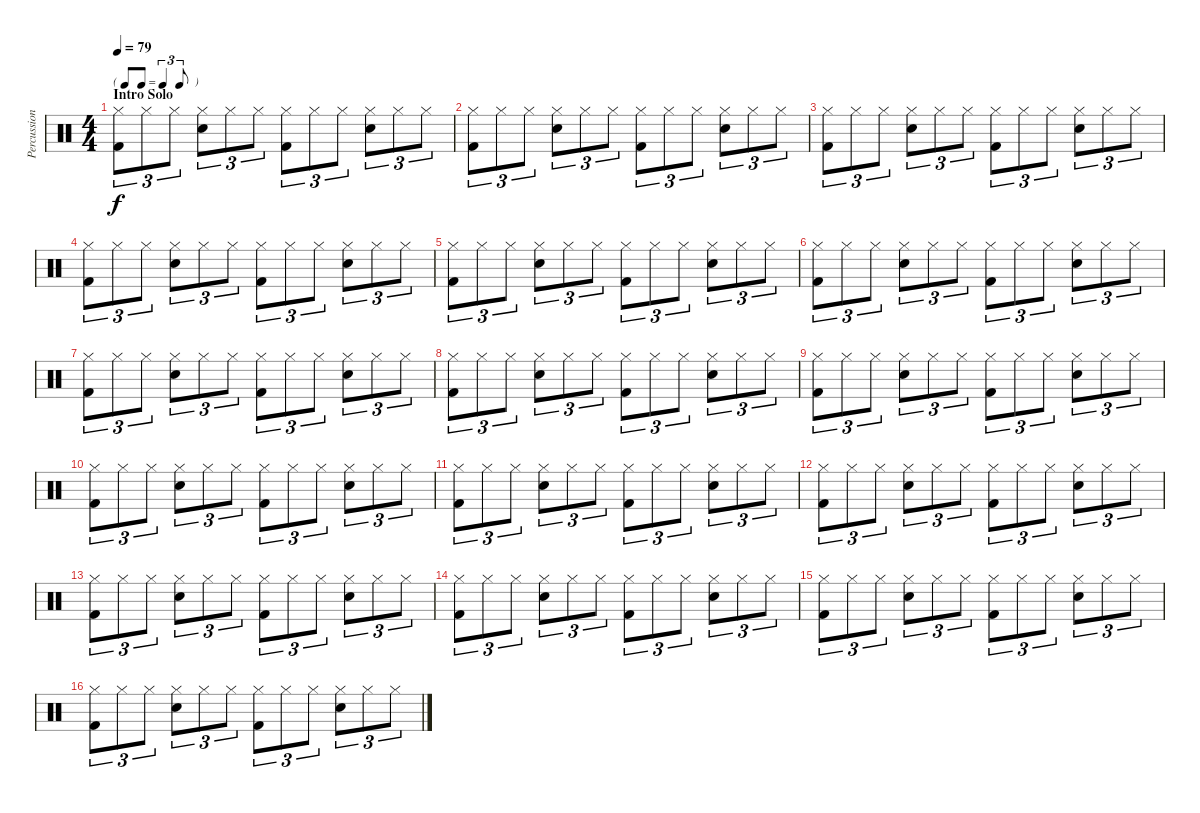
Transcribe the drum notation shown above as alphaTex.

\track ("Percussion" "Percussion") {instrument percussion}
\staff {score}
\articulation defaults
\ts (4 4)
\tf triplet8th
\section ("" "Intro Solo")
\tempo 79
\clef neutral
\ks c
("Hi-Hat (closed)" "Kick (hit) 2").8{tu (3 2) dy f} "Hi-Hat (closed)".8{tu (3 2)} "Hi-Hat (closed)".8{tu (3 2)} ("Hi-Hat (closed)" "Snare (hit) 2").8{tu (3 2)} "Hi-Hat (closed)".8{tu (3 2)} "Hi-Hat (closed)".8{tu (3 2)} ("Hi-Hat (closed)" "Kick (hit) 2").8{tu (3 2)} "Hi-Hat (closed)".8{tu (3 2)} "Hi-Hat (closed)".8{tu (3 2)} ("Hi-Hat (closed)" "Snare (hit) 2").8{tu (3 2)} "Hi-Hat (closed)".8{tu (3 2)} "Hi-Hat (closed)".8{tu (3 2)} |
("Hi-Hat (closed)" "Kick (hit) 2").8{tu (3 2)} "Hi-Hat (closed)".8{tu (3 2)} "Hi-Hat (closed)".8{tu (3 2)} ("Hi-Hat (closed)" "Snare (hit) 2").8{tu (3 2)} "Hi-Hat (closed)".8{tu (3 2)} "Hi-Hat (closed)".8{tu (3 2)} ("Hi-Hat (closed)" "Kick (hit) 2").8{tu (3 2)} "Hi-Hat (closed)".8{tu (3 2)} "Hi-Hat (closed)".8{tu (3 2)} ("Hi-Hat (closed)" "Snare (hit) 2").8{tu (3 2)} "Hi-Hat (closed)".8{tu (3 2)} "Hi-Hat (closed)".8{tu (3 2)} |
("Hi-Hat (closed)" "Kick (hit) 2").8{tu (3 2)} "Hi-Hat (closed)".8{tu (3 2)} "Hi-Hat (closed)".8{tu (3 2)} ("Hi-Hat (closed)" "Snare (hit) 2").8{tu (3 2)} "Hi-Hat (closed)".8{tu (3 2)} "Hi-Hat (closed)".8{tu (3 2)} ("Hi-Hat (closed)" "Kick (hit) 2").8{tu (3 2)} "Hi-Hat (closed)".8{tu (3 2)} "Hi-Hat (closed)".8{tu (3 2)} ("Hi-Hat (closed)" "Snare (hit) 2").8{tu (3 2)} "Hi-Hat (closed)".8{tu (3 2)} "Hi-Hat (closed)".8{tu (3 2)} |
("Hi-Hat (closed)" "Kick (hit) 2").8{tu (3 2)} "Hi-Hat (closed)".8{tu (3 2)} "Hi-Hat (closed)".8{tu (3 2)} ("Hi-Hat (closed)" "Snare (hit) 2").8{tu (3 2)} "Hi-Hat (closed)".8{tu (3 2)} "Hi-Hat (closed)".8{tu (3 2)} ("Hi-Hat (closed)" "Kick (hit) 2").8{tu (3 2)} "Hi-Hat (closed)".8{tu (3 2)} "Hi-Hat (closed)".8{tu (3 2)} ("Hi-Hat (closed)" "Snare (hit) 2").8{tu (3 2)} "Hi-Hat (closed)".8{tu (3 2)} "Hi-Hat (closed)".8{tu (3 2)} |
("Hi-Hat (closed)" "Kick (hit) 2").8{tu (3 2)} "Hi-Hat (closed)".8{tu (3 2)} "Hi-Hat (closed)".8{tu (3 2)} ("Hi-Hat (closed)" "Snare (hit) 2").8{tu (3 2)} "Hi-Hat (closed)".8{tu (3 2)} "Hi-Hat (closed)".8{tu (3 2)} ("Hi-Hat (closed)" "Kick (hit) 2").8{tu (3 2)} "Hi-Hat (closed)".8{tu (3 2)} "Hi-Hat (closed)".8{tu (3 2)} ("Hi-Hat (closed)" "Snare (hit) 2").8{tu (3 2)} "Hi-Hat (closed)".8{tu (3 2)} "Hi-Hat (closed)".8{tu (3 2)} |
("Hi-Hat (closed)" "Kick (hit) 2").8{tu (3 2)} "Hi-Hat (closed)".8{tu (3 2)} "Hi-Hat (closed)".8{tu (3 2)} ("Hi-Hat (closed)" "Snare (hit) 2").8{tu (3 2)} "Hi-Hat (closed)".8{tu (3 2)} "Hi-Hat (closed)".8{tu (3 2)} ("Hi-Hat (closed)" "Kick (hit) 2").8{tu (3 2)} "Hi-Hat (closed)".8{tu (3 2)} "Hi-Hat (closed)".8{tu (3 2)} ("Hi-Hat (closed)" "Snare (hit) 2").8{tu (3 2)} "Hi-Hat (closed)".8{tu (3 2)} "Hi-Hat (closed)".8{tu (3 2)} |
("Hi-Hat (closed)" "Kick (hit) 2").8{tu (3 2)} "Hi-Hat (closed)".8{tu (3 2)} "Hi-Hat (closed)".8{tu (3 2)} ("Hi-Hat (closed)" "Snare (hit) 2").8{tu (3 2)} "Hi-Hat (closed)".8{tu (3 2)} "Hi-Hat (closed)".8{tu (3 2)} ("Hi-Hat (closed)" "Kick (hit) 2").8{tu (3 2)} "Hi-Hat (closed)".8{tu (3 2)} "Hi-Hat (closed)".8{tu (3 2)} ("Hi-Hat (closed)" "Snare (hit) 2").8{tu (3 2)} "Hi-Hat (closed)".8{tu (3 2)} "Hi-Hat (closed)".8{tu (3 2)} |
("Hi-Hat (closed)" "Kick (hit) 2").8{tu (3 2)} "Hi-Hat (closed)".8{tu (3 2)} "Hi-Hat (closed)".8{tu (3 2)} ("Hi-Hat (closed)" "Snare (hit) 2").8{tu (3 2)} "Hi-Hat (closed)".8{tu (3 2)} "Hi-Hat (closed)".8{tu (3 2)} ("Hi-Hat (closed)" "Kick (hit) 2").8{tu (3 2)} "Hi-Hat (closed)".8{tu (3 2)} "Hi-Hat (closed)".8{tu (3 2)} ("Hi-Hat (closed)" "Snare (hit) 2").8{tu (3 2)} "Hi-Hat (closed)".8{tu (3 2)} "Hi-Hat (closed)".8{tu (3 2)} |
("Hi-Hat (closed)" "Kick (hit) 2").8{tu (3 2)} "Hi-Hat (closed)".8{tu (3 2)} "Hi-Hat (closed)".8{tu (3 2)} ("Hi-Hat (closed)" "Snare (hit) 2").8{tu (3 2)} "Hi-Hat (closed)".8{tu (3 2)} "Hi-Hat (closed)".8{tu (3 2)} ("Hi-Hat (closed)" "Kick (hit) 2").8{tu (3 2)} "Hi-Hat (closed)".8{tu (3 2)} "Hi-Hat (closed)".8{tu (3 2)} ("Hi-Hat (closed)" "Snare (hit) 2").8{tu (3 2)} "Hi-Hat (closed)".8{tu (3 2)} "Hi-Hat (closed)".8{tu (3 2)} |
("Hi-Hat (closed)" "Kick (hit) 2").8{tu (3 2)} "Hi-Hat (closed)".8{tu (3 2)} "Hi-Hat (closed)".8{tu (3 2)} ("Hi-Hat (closed)" "Snare (hit) 2").8{tu (3 2)} "Hi-Hat (closed)".8{tu (3 2)} "Hi-Hat (closed)".8{tu (3 2)} ("Hi-Hat (closed)" "Kick (hit) 2").8{tu (3 2)} "Hi-Hat (closed)".8{tu (3 2)} "Hi-Hat (closed)".8{tu (3 2)} ("Hi-Hat (closed)" "Snare (hit) 2").8{tu (3 2)} "Hi-Hat (closed)".8{tu (3 2)} "Hi-Hat (closed)".8{tu (3 2)} |
("Hi-Hat (closed)" "Kick (hit) 2").8{tu (3 2)} "Hi-Hat (closed)".8{tu (3 2)} "Hi-Hat (closed)".8{tu (3 2)} ("Hi-Hat (closed)" "Snare (hit) 2").8{tu (3 2)} "Hi-Hat (closed)".8{tu (3 2)} "Hi-Hat (closed)".8{tu (3 2)} ("Hi-Hat (closed)" "Kick (hit) 2").8{tu (3 2)} "Hi-Hat (closed)".8{tu (3 2)} "Hi-Hat (closed)".8{tu (3 2)} ("Hi-Hat (closed)" "Snare (hit) 2").8{tu (3 2)} "Hi-Hat (closed)".8{tu (3 2)} "Hi-Hat (closed)".8{tu (3 2)} |
("Hi-Hat (closed)" "Kick (hit) 2").8{tu (3 2)} "Hi-Hat (closed)".8{tu (3 2)} "Hi-Hat (closed)".8{tu (3 2)} ("Hi-Hat (closed)" "Snare (hit) 2").8{tu (3 2)} "Hi-Hat (closed)".8{tu (3 2)} "Hi-Hat (closed)".8{tu (3 2)} ("Hi-Hat (closed)" "Kick (hit) 2").8{tu (3 2)} "Hi-Hat (closed)".8{tu (3 2)} "Hi-Hat (closed)".8{tu (3 2)} ("Hi-Hat (closed)" "Snare (hit) 2").8{tu (3 2)} "Hi-Hat (closed)".8{tu (3 2)} "Hi-Hat (closed)".8{tu (3 2)} |
("Hi-Hat (closed)" "Kick (hit) 2").8{tu (3 2)} "Hi-Hat (closed)".8{tu (3 2)} "Hi-Hat (closed)".8{tu (3 2)} ("Hi-Hat (closed)" "Snare (hit) 2").8{tu (3 2)} "Hi-Hat (closed)".8{tu (3 2)} "Hi-Hat (closed)".8{tu (3 2)} ("Hi-Hat (closed)" "Kick (hit) 2").8{tu (3 2)} "Hi-Hat (closed)".8{tu (3 2)} "Hi-Hat (closed)".8{tu (3 2)} ("Hi-Hat (closed)" "Snare (hit) 2").8{tu (3 2)} "Hi-Hat (closed)".8{tu (3 2)} "Hi-Hat (closed)".8{tu (3 2)} |
("Hi-Hat (closed)" "Kick (hit) 2").8{tu (3 2)} "Hi-Hat (closed)".8{tu (3 2)} "Hi-Hat (closed)".8{tu (3 2)} ("Hi-Hat (closed)" "Snare (hit) 2").8{tu (3 2)} "Hi-Hat (closed)".8{tu (3 2)} "Hi-Hat (closed)".8{tu (3 2)} ("Hi-Hat (closed)" "Kick (hit) 2").8{tu (3 2)} "Hi-Hat (closed)".8{tu (3 2)} "Hi-Hat (closed)".8{tu (3 2)} ("Hi-Hat (closed)" "Snare (hit) 2").8{tu (3 2)} "Hi-Hat (closed)".8{tu (3 2)} "Hi-Hat (closed)".8{tu (3 2)} |
("Hi-Hat (closed)" "Kick (hit) 2").8{tu (3 2)} "Hi-Hat (closed)".8{tu (3 2)} "Hi-Hat (closed)".8{tu (3 2)} ("Hi-Hat (closed)" "Snare (hit) 2").8{tu (3 2)} "Hi-Hat (closed)".8{tu (3 2)} "Hi-Hat (closed)".8{tu (3 2)} ("Hi-Hat (closed)" "Kick (hit) 2").8{tu (3 2)} "Hi-Hat (closed)".8{tu (3 2)} "Hi-Hat (closed)".8{tu (3 2)} ("Hi-Hat (closed)" "Snare (hit) 2").8{tu (3 2)} "Hi-Hat (closed)".8{tu (3 2)} "Hi-Hat (closed)".8{tu (3 2)} |
("Hi-Hat (closed)" "Kick (hit) 2").8{tu (3 2)} "Hi-Hat (closed)".8{tu (3 2)} "Hi-Hat (closed)".8{tu (3 2)} ("Hi-Hat (closed)" "Snare (hit) 2").8{tu (3 2)} "Hi-Hat (closed)".8{tu (3 2)} "Hi-Hat (closed)".8{tu (3 2)} ("Hi-Hat (closed)" "Kick (hit) 2").8{tu (3 2)} "Hi-Hat (closed)".8{tu (3 2)} "Hi-Hat (closed)".8{tu (3 2)} ("Hi-Hat (closed)" "Snare (hit) 2").8{tu (3 2)} "Hi-Hat (closed)".8{tu (3 2)} "Hi-Hat (closed)".8{tu (3 2)}
